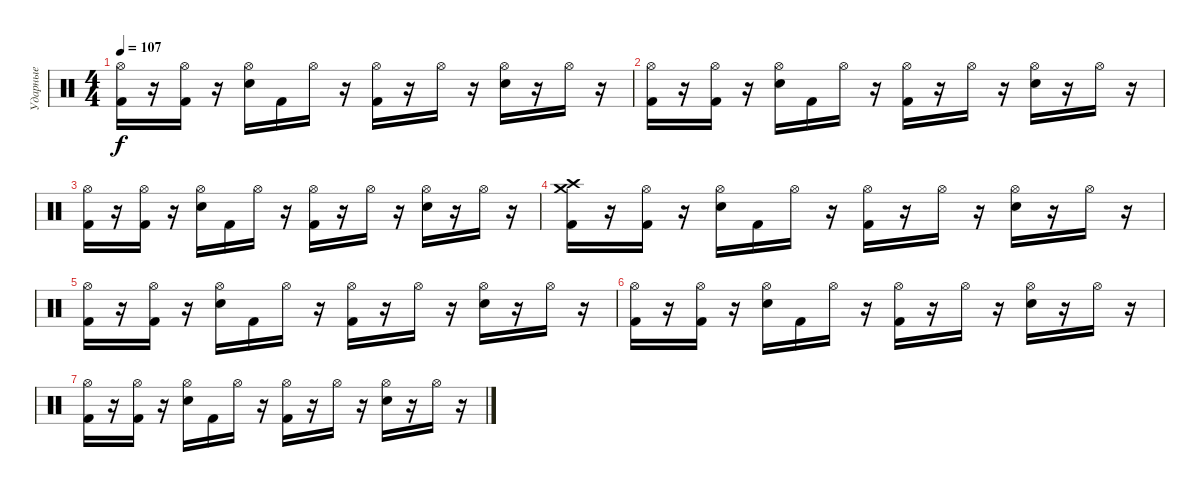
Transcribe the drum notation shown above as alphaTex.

\track ("Ударные" "Ударные") {instrument percussion}
\staff {score}
\articulation defaults
\ts (4 4)
\tempo 107
\clef neutral
\ks c
("Kick (hit) 2" "Hi-Hat (open)").16{dy f} r.16 ("Kick (hit) 2" "Hi-Hat (open)").16 r.16 ("Electric Snare (hit)" "Hi-Hat (open)").16 "Kick (hit) 2".16 "Hi-Hat (open)".16 r.16 ("Kick (hit) 2" "Hi-Hat (open)").16 r.16 "Hi-Hat (open)".16 r.16 ("Electric Snare (hit)" "Hi-Hat (open)").16 r.16 "Hi-Hat (open)".16 r.16 |
("Kick (hit) 2" "Hi-Hat (open)").16 r.16 ("Kick (hit) 2" "Hi-Hat (open)").16 r.16 ("Electric Snare (hit)" "Hi-Hat (open)").16 "Kick (hit) 2".16 "Hi-Hat (open)".16 r.16 ("Kick (hit) 2" "Hi-Hat (open)").16 r.16 "Hi-Hat (open)".16 r.16 ("Electric Snare (hit)" "Hi-Hat (open)").16 r.16 "Hi-Hat (open)".16 r.16 |
("Kick (hit) 2" "Hi-Hat (open)").16 r.16 ("Kick (hit) 2" "Hi-Hat (open)").16 r.16 ("Electric Snare (hit)" "Hi-Hat (open)").16 "Kick (hit) 2".16 "Hi-Hat (open)".16 r.16 ("Kick (hit) 2" "Hi-Hat (open)").16 r.16 "Hi-Hat (open)".16 r.16 ("Electric Snare (hit)" "Hi-Hat (open)").16 r.16 "Hi-Hat (open)".16 r.16 |
("Kick (hit) 2" "Crash high (hit)" "Crash medium (hit)").16 r.16 ("Kick (hit) 2" "Hi-Hat (open)").16 r.16 ("Electric Snare (hit)" "Hi-Hat (open)").16 "Kick (hit) 2".16 "Hi-Hat (open)".16 r.16 ("Kick (hit) 2" "Hi-Hat (open)").16 r.16 "Hi-Hat (open)".16 r.16 ("Electric Snare (hit)" "Hi-Hat (open)").16 r.16 "Hi-Hat (open)".16 r.16 |
("Kick (hit) 2" "Hi-Hat (open)").16 r.16 ("Kick (hit) 2" "Hi-Hat (open)").16 r.16 ("Electric Snare (hit)" "Hi-Hat (open)").16 "Kick (hit) 2".16 "Hi-Hat (open)".16 r.16 ("Kick (hit) 2" "Hi-Hat (open)").16 r.16 "Hi-Hat (open)".16 r.16 ("Electric Snare (hit)" "Hi-Hat (open)").16 r.16 "Hi-Hat (open)".16 r.16 |
("Kick (hit) 2" "Hi-Hat (open)").16 r.16 ("Kick (hit) 2" "Hi-Hat (open)").16 r.16 ("Electric Snare (hit)" "Hi-Hat (open)").16 "Kick (hit) 2".16 "Hi-Hat (open)".16 r.16 ("Kick (hit) 2" "Hi-Hat (open)").16 r.16 "Hi-Hat (open)".16 r.16 ("Electric Snare (hit)" "Hi-Hat (open)").16 r.16 "Hi-Hat (open)".16 r.16 |
("Kick (hit) 2" "Hi-Hat (open)").16 r.16 ("Kick (hit) 2" "Hi-Hat (open)").16 r.16 ("Electric Snare (hit)" "Hi-Hat (open)").16 "Kick (hit) 2".16 "Hi-Hat (open)".16 r.16 ("Kick (hit) 2" "Hi-Hat (open)").16 r.16 "Hi-Hat (open)".16 r.16 ("Electric Snare (hit)" "Hi-Hat (open)").16 r.16 "Hi-Hat (open)".16 r.16
